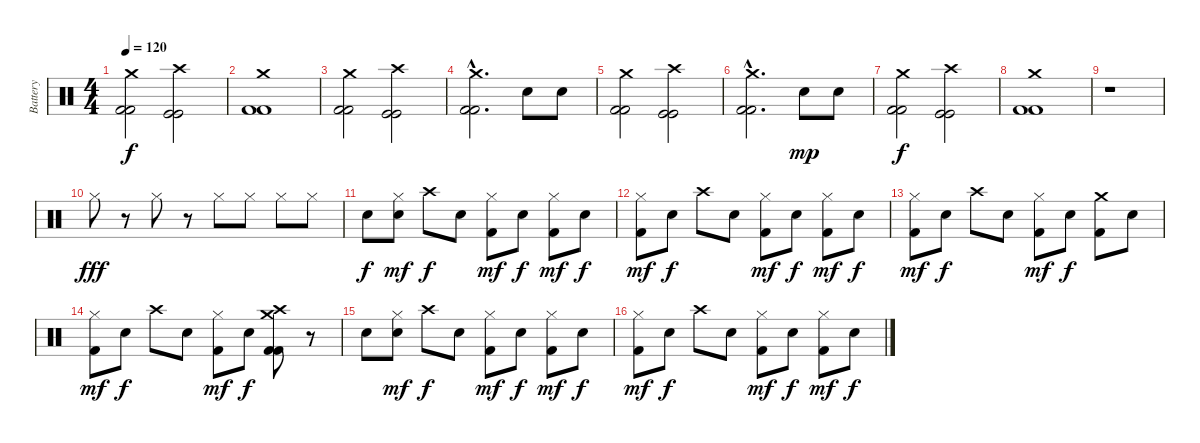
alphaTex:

\track ("Battery" "Battery") {instrument percussion}
\staff {score}
\articulation defaults
\ts (4 4)
\tempo 120
\clef neutral
\ks c
("Crash medium (hit)" "Kick (hit) 2" "Kick (hit) 2").2{dy f} ("Crash high (hit)" "Kick (hit)" "Kick (hit)").2 |
("Crash medium (hit)" "Kick (hit) 2" "Kick (hit) 2").1 |
("Crash medium (hit)" "Kick (hit) 2" "Kick (hit) 2").2 ("Crash high (hit)" "Kick (hit)" "Kick (hit)").2 |
("Crash medium (hit)"{hac} "Kick (hit) 2"{hac} "Kick (hit) 2"{hac}).2{d} "Electric Snare (hit)".8 "Electric Snare (hit)".8 |
("Crash medium (hit)" "Kick (hit) 2" "Kick (hit) 2").2 ("Crash high (hit)" "Kick (hit)" "Kick (hit)").2 |
("Crash medium (hit)"{hac} "Kick (hit) 2"{hac} "Kick (hit) 2"{hac}).2{d} "Electric Snare (hit)".8{dy mp} "Electric Snare (hit)".8 |
("Crash medium (hit)" "Kick (hit) 2" "Kick (hit) 2").2{dy f} ("Crash high (hit)" "Kick (hit)" "Kick (hit)").2 |
("Crash medium (hit)" "Kick (hit) 2" "Kick (hit) 2").1 |
r.1 |
"Hi-Hat (closed)".8{dy fff} r.8 "Hi-Hat (closed)".8 r.8 "Hi-Hat (closed)".8 "Hi-Hat (closed)".8 "Hi-Hat (closed)".8 "Hi-Hat (closed)".8 |
"Electric Snare (hit)".8{dy f} ("Hi-Hat (closed)" "Electric Snare (hit)").8{dy mf} "Crash high (hit)".8{dy f} "Electric Snare (hit)".8 ("Hi-Hat (closed)" "Kick (hit) 2").8{dy mf} "Electric Snare (hit)".8{dy f} ("Hi-Hat (closed)" "Kick (hit) 2").8{dy mf} "Electric Snare (hit)".8{dy f} |
("Hi-Hat (closed)" "Kick (hit) 2").8{dy mf} "Electric Snare (hit)".8{dy f} "Crash high (hit)".8 "Electric Snare (hit)".8 ("Hi-Hat (closed)" "Kick (hit) 2").8{dy mf} "Electric Snare (hit)".8{dy f} ("Hi-Hat (closed)" "Kick (hit) 2").8{dy mf} "Electric Snare (hit)".8{dy f} |
("Hi-Hat (closed)" "Kick (hit) 2").8{dy mf} "Electric Snare (hit)".8{dy f} "Crash high (hit)".8 "Electric Snare (hit)".8 ("Hi-Hat (closed)" "Kick (hit) 2").8{dy mf} "Electric Snare (hit)".8{dy f} ("Crash medium (hit)" "Kick (hit) 2").8 "Electric Snare (hit)".8 |
("Hi-Hat (closed)" "Kick (hit) 2").8{dy mf} "Electric Snare (hit)".8{dy f} "Crash high (hit)".8 "Electric Snare (hit)".8 ("Hi-Hat (closed)" "Kick (hit) 2").8{dy mf} "Electric Snare (hit)".8{dy f} ("Crash high (hit)" "Crash medium (hit)" "Kick (hit) 2" "Kick (hit) 2").8 r.8 |
"Electric Snare (hit)".8 ("Hi-Hat (closed)" "Electric Snare (hit)").8{dy mf} "Crash high (hit)".8{dy f} "Electric Snare (hit)".8 ("Hi-Hat (closed)" "Kick (hit) 2").8{dy mf} "Electric Snare (hit)".8{dy f} ("Hi-Hat (closed)" "Kick (hit) 2").8{dy mf} "Electric Snare (hit)".8{dy f} |
("Hi-Hat (closed)" "Kick (hit) 2").8{dy mf} "Electric Snare (hit)".8{dy f} "Crash high (hit)".8 "Electric Snare (hit)".8 ("Hi-Hat (closed)" "Kick (hit) 2").8{dy mf} "Electric Snare (hit)".8{dy f} ("Hi-Hat (closed)" "Kick (hit) 2").8{dy mf} "Electric Snare (hit)".8{dy f}
